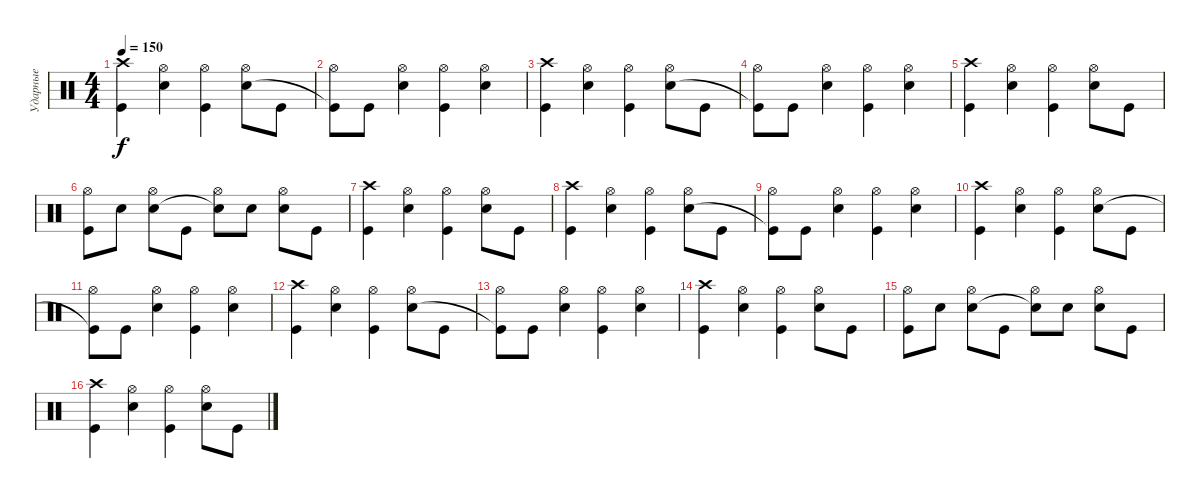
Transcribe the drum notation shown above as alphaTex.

\track ("Ударные" "Ударные") {instrument percussion}
\staff {score}
\articulation defaults
\ts (4 4)
\tempo 150
\clef neutral
\ks c
("Crash high (hit)" "Kick (hit)").4{dy f} ("Hi-Hat (open)" "Snare (hit) 2").4 ("Hi-Hat (open)" "Kick (hit)").4 ("Hi-Hat (open)" "Snare (hit) 2").8 "Kick (hit)".8 |
("Hi-Hat (open)" "Kick (hit)"{t}).8 "Kick (hit)".8 ("Hi-Hat (open)" "Snare (hit) 2").4 ("Hi-Hat (open)" "Kick (hit)").4 ("Hi-Hat (open)" "Snare (hit) 2").4 |
("Crash high (hit)" "Kick (hit)").4 ("Hi-Hat (open)" "Snare (hit) 2").4 ("Hi-Hat (open)" "Kick (hit)").4 ("Hi-Hat (open)" "Snare (hit) 2").8 "Kick (hit)".8 |
("Hi-Hat (open)" "Kick (hit)"{t}).8 "Kick (hit)".8 ("Hi-Hat (open)" "Snare (hit) 2").4 ("Hi-Hat (open)" "Kick (hit)").4 ("Hi-Hat (open)" "Snare (hit) 2").4 |
("Crash high (hit)" "Kick (hit)").4 ("Hi-Hat (open)" "Snare (hit) 2").4 ("Hi-Hat (open)" "Kick (hit)").4 ("Hi-Hat (open)" "Snare (hit) 2").8 "Kick (hit)".8 |
("Hi-Hat (open)" "Kick (hit)").8 "Snare (hit) 2".8 ("Hi-Hat (open)" "Snare (hit) 2").8 "Kick (hit)".8 ("Hi-Hat (open)" "Snare (hit)"{t}).8 "Snare (hit) 2".8 ("Hi-Hat (open)" "Snare (hit) 2").8 "Kick (hit)".8 |
("Crash high (hit)" "Kick (hit)").4 ("Hi-Hat (open)" "Snare (hit) 2").4 ("Hi-Hat (open)" "Kick (hit)").4 ("Hi-Hat (open)" "Snare (hit) 2").8 "Kick (hit)".8 |
("Crash high (hit)" "Kick (hit)").4 ("Hi-Hat (open)" "Snare (hit) 2").4 ("Hi-Hat (open)" "Kick (hit)").4 ("Hi-Hat (open)" "Snare (hit) 2").8 "Kick (hit)".8 |
("Hi-Hat (open)" "Kick (hit)"{t}).8 "Kick (hit)".8 ("Hi-Hat (open)" "Snare (hit) 2").4 ("Hi-Hat (open)" "Kick (hit)").4 ("Hi-Hat (open)" "Snare (hit) 2").4 |
("Crash high (hit)" "Kick (hit)").4 ("Hi-Hat (open)" "Snare (hit) 2").4 ("Hi-Hat (open)" "Kick (hit)").4 ("Hi-Hat (open)" "Snare (hit) 2").8 "Kick (hit)".8 |
("Hi-Hat (open)" "Kick (hit)"{t}).8 "Kick (hit)".8 ("Hi-Hat (open)" "Snare (hit) 2").4 ("Hi-Hat (open)" "Kick (hit)").4 ("Hi-Hat (open)" "Snare (hit) 2").4 |
("Crash high (hit)" "Kick (hit)").4 ("Hi-Hat (open)" "Snare (hit) 2").4 ("Hi-Hat (open)" "Kick (hit)").4 ("Hi-Hat (open)" "Snare (hit) 2").8 "Kick (hit)".8 |
("Hi-Hat (open)" "Kick (hit)"{t}).8 "Kick (hit)".8 ("Hi-Hat (open)" "Snare (hit) 2").4 ("Hi-Hat (open)" "Kick (hit)").4 ("Hi-Hat (open)" "Snare (hit) 2").4 |
("Crash high (hit)" "Kick (hit)").4 ("Hi-Hat (open)" "Snare (hit) 2").4 ("Hi-Hat (open)" "Kick (hit)").4 ("Hi-Hat (open)" "Snare (hit) 2").8 "Kick (hit)".8 |
("Hi-Hat (open)" "Kick (hit)").8 "Snare (hit) 2".8 ("Hi-Hat (open)" "Snare (hit) 2").8 "Kick (hit)".8 ("Hi-Hat (open)" "Snare (hit)"{t}).8 "Snare (hit) 2".8 ("Hi-Hat (open)" "Snare (hit) 2").8 "Kick (hit)".8 |
("Crash high (hit)" "Kick (hit)").4 ("Hi-Hat (open)" "Snare (hit) 2").4 ("Hi-Hat (open)" "Kick (hit)").4 ("Hi-Hat (open)" "Snare (hit) 2").8 "Kick (hit)".8
